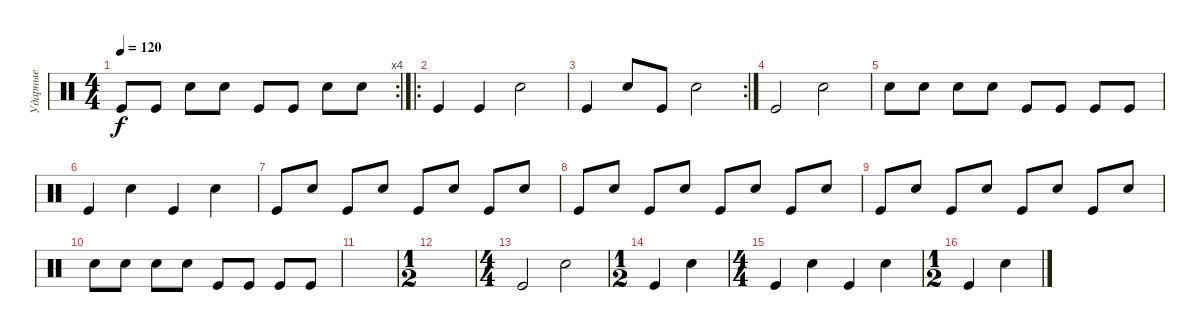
\track ("Ударные" "Ударные") {instrument percussion}
\staff {score}
\articulation defaults
\rc 4
\ts (4 4)
\tempo 120
\clef neutral
\ks c "Kick (hit)".8{dy f} "Kick (hit)".8 "Electric Snare (hit)".8 "Electric Snare (hit)".8 "Kick (hit)".8 "Kick (hit)".8 "Electric Snare (hit)".8 "Electric Snare (hit)".8
|
\ro "Kick (hit)".4 "Kick (hit)".4 "Electric Snare (hit)".2
|
\rc 2 "Kick (hit)".4 "Snare (hit) 2".8 "Kick (hit)".8 "Electric Snare (hit)".2
|
"Kick (hit)".2 "Electric Snare (hit)".2 |
"Electric Snare (hit)".8 "Electric Snare (hit)".8 "Electric Snare (hit)".8 "Electric Snare (hit)".8 "Kick (hit)".8 "Kick (hit)".8 "Kick (hit)".8 "Kick (hit)".8 |
"Kick (hit)".4 "Electric Snare (hit)".4 "Kick (hit)".4 "Electric Snare (hit)".4 |
"Kick (hit)".8 "Electric Snare (hit)".8 "Kick (hit)".8 "Electric Snare (hit)".8 "Kick (hit)".8 "Electric Snare (hit)".8 "Kick (hit)".8 "Electric Snare (hit)".8 |
"Kick (hit)".8 "Electric Snare (hit)".8 "Kick (hit)".8 "Electric Snare (hit)".8 "Kick (hit)".8 "Electric Snare (hit)".8 "Kick (hit)".8 "Electric Snare (hit)".8 |
"Kick (hit)".8 "Electric Snare (hit)".8 "Kick (hit)".8 "Electric Snare (hit)".8 "Kick (hit)".8 "Electric Snare (hit)".8 "Kick (hit)".8 "Electric Snare (hit)".8 |
"Electric Snare (hit)".8 "Electric Snare (hit)".8 "Electric Snare (hit)".8 "Electric Snare (hit)".8 "Kick (hit)".8 "Kick (hit)".8 "Kick (hit)".8 "Kick (hit)".8 |
|
\ts (1 2)
|
\ts (4 4)
"Kick (hit)".2 "Electric Snare (hit)".2 |
\ts (1 2)
"Kick (hit)".4 "Electric Snare (hit)".4 |
\ts (4 4)
"Kick (hit)".4 "Electric Snare (hit)".4 "Kick (hit)".4 "Electric Snare (hit)".4 |
\ts (1 2)
"Kick (hit)".4 "Electric Snare (hit)".4
